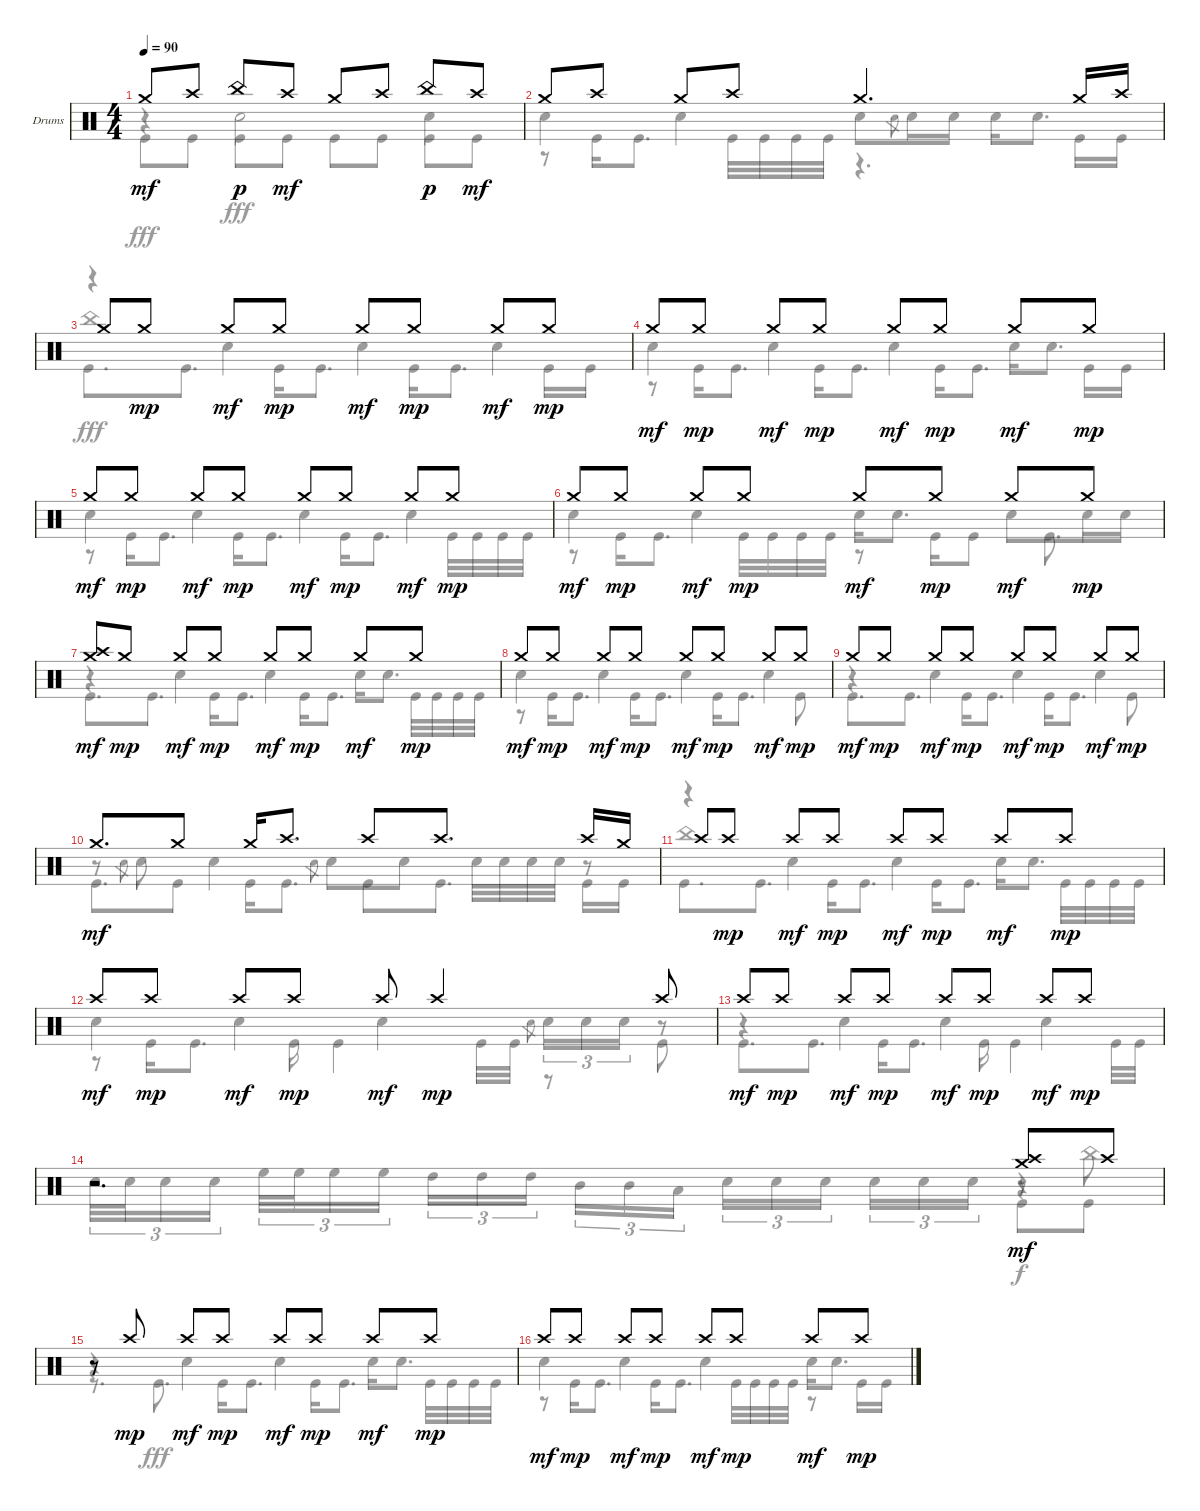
\defaultSystemsLayout 4
\bracketExtendMode groupsimilarinstruments
\firstSystemTrackNameOrientation horizontal
\otherSystemsTrackNameOrientation horizontal
\track ("Drumkit" "Drums") {instrument percussion}
\staff {score}
\articulation defaults
\voice
\ts (4 4)
\tempo 90
\clef neutral
\ks c "Crash medium (hit)".8{dy mf} "Crash high (hit)".8 "China (hit)".8{dy p} "Crash high (hit)".8{dy mf} "Crash medium (hit)".8 "Crash high (hit)".8 "China (hit)".8{dy p} "Crash high (hit)".8{dy mf}
|
"Crash medium (hit)".8 "Crash high (hit)".8 "Crash medium (hit)".8 "Crash high (hit)".8 "Crash medium (hit)".4{d} "Crash medium (hit)".16 "Crash high (hit)".16 |
"Crash medium (hit)".8 "Crash medium (hit)".8{dy mp} "Crash medium (hit)".8{dy mf} "Crash medium (hit)".8{dy mp} "Crash medium (hit)".8{dy mf} "Crash medium (hit)".8{dy mp} "Crash medium (hit)".8{dy mf} "Crash medium (hit)".8{dy mp} |
"Crash medium (hit)".8{dy mf} "Crash medium (hit)".8{dy mp} "Crash medium (hit)".8{dy mf} "Crash medium (hit)".8{dy mp} "Crash medium (hit)".8{dy mf} "Crash medium (hit)".8{dy mp} "Crash medium (hit)".8{dy mf} "Crash medium (hit)".8{dy mp} |
"Crash medium (hit)".8{dy mf} "Crash medium (hit)".8{dy mp} "Crash medium (hit)".8{dy mf} "Crash medium (hit)".8{dy mp} "Crash medium (hit)".8{dy mf} "Crash medium (hit)".8{dy mp} "Crash medium (hit)".8{dy mf} "Crash medium (hit)".8{dy mp} |
"Crash medium (hit)".8{dy mf} "Crash medium (hit)".8{dy mp} "Crash medium (hit)".8{dy mf} "Crash medium (hit)".8{dy mp} "Crash medium (hit)".8{dy mf} "Crash medium (hit)".8{dy mp} "Crash medium (hit)".8{dy mf} "Crash medium (hit)".8{dy mp} |
("Crash medium (hit)" "Crash high (hit)").8{dy mf} "Crash medium (hit)".8{dy mp} "Crash medium (hit)".8{dy mf} "Crash medium (hit)".8{dy mp} "Crash medium (hit)".8{dy mf} "Crash medium (hit)".8{dy mp} "Crash medium (hit)".8{dy mf} "Crash medium (hit)".8{dy mp} |
"Crash medium (hit)".8{dy mf} "Crash medium (hit)".8{dy mp} "Crash medium (hit)".8{dy mf} "Crash medium (hit)".8{dy mp} "Crash medium (hit)".8{dy mf} "Crash medium (hit)".8{dy mp} "Crash medium (hit)".8{dy mf} "Crash medium (hit)".8{dy mp} |
"Crash medium (hit)".8{dy mf} "Crash medium (hit)".8{dy mp} "Crash medium (hit)".8{dy mf} "Crash medium (hit)".8{dy mp} "Crash medium (hit)".8{dy mf} "Crash medium (hit)".8{dy mp} "Crash medium (hit)".8{dy mf} "Crash medium (hit)".8{dy mp} |
"Crash medium (hit)".8{d dy mf} "Crash medium (hit)".8 "Crash medium (hit)".16 "Crash high (hit)".8{d} "Crash high (hit)".8 "Crash high (hit)".8{d} "Crash high (hit)".16 "Crash medium (hit)".16 |
"Crash high (hit)".8 "Crash high (hit)".8{dy mp} "Crash high (hit)".8{dy mf} "Crash high (hit)".8{dy mp} "Crash high (hit)".8{dy mf} "Crash high (hit)".8{dy mp} "Crash high (hit)".8{dy mf} "Crash high (hit)".8{dy mp} |
"Crash high (hit)".8{dy mf} "Crash high (hit)".8{dy mp} "Crash high (hit)".8{dy mf} "Crash high (hit)".8{dy mp} "Crash high (hit)".8{dy mf} "Crash high (hit)".4{dy mp} "Crash high (hit)".8 |
"Crash high (hit)".8{dy mf} "Crash high (hit)".8{dy mp} "Crash high (hit)".8{dy mf} "Crash high (hit)".8{dy mp} "Crash high (hit)".8{dy mf} "Crash high (hit)".8{dy mp} "Crash high (hit)".8{dy mf} "Crash high (hit)".8{dy mp} |
r.2{d} ("Crash medium (hit)" "Crash high (hit)").8{dy mf} "Crash high (hit)".8 |
r.8 "Crash high (hit)".8{dy mp} "Crash high (hit)".8{dy mf} "Crash high (hit)".8{dy mp} "Crash high (hit)".8{dy mf} "Crash high (hit)".8{dy mp} "Crash high (hit)".8{dy mf} "Crash high (hit)".8{dy mp} |
"Crash high (hit)".8{dy mf} "Crash high (hit)".8{dy mp} "Crash high (hit)".8{dy mf} "Crash high (hit)".8{dy mp} "Crash high (hit)".8{dy mf} "Crash high (hit)".8{dy mp} "Crash high (hit)".8{dy mf} "Crash high (hit)".8{dy mp}
\voice
\clef neutral
\ottava regular
\simile none
\ks c
r.4{dy fff} "Snare (hit) 2".2 "Snare (hit) 2".4 |
"Snare (hit) 2".4 "Snare (hit) 2".4 "Snare (hit) 2".8 "Snare (hit) 2".8{gr} "Snare (hit) 2".16 "Snare (hit) 2".16 "Snare (hit) 2".16 "Snare (hit) 2".8{d} |
r.4 "Snare (hit) 2".4 "Snare (hit) 2".4 "Snare (hit) 2".4 |
"Snare (hit) 2".4 "Snare (hit) 2".4 "Snare (hit) 2".4 "Snare (hit) 2".16 "Snare (hit) 2".8{d} |
"Snare (hit) 2".4 "Snare (hit) 2".4 "Snare (hit) 2".4 "Snare (hit) 2".4 |
"Snare (hit) 2".4 "Snare (hit) 2".4 "Snare (hit) 2".16 "Snare (hit) 2".8{d} "Snare (hit) 2".8 "Snare (hit) 2".16 "Snare (hit) 2".16 |
r.4 "Snare (hit) 2".4 "Snare (hit) 2".4 "Snare (hit) 2".16 "Snare (hit) 2".8{d} |
"Snare (hit) 2".4 "Snare (hit) 2".4 "Snare (hit) 2".4 "Snare (hit) 2".4 |
r.4 "Snare (hit) 2".4 "Snare (hit) 2".4 "Snare (hit) 2".4 |
r.8 "Snare (hit) 2".8{gr} "Snare (hit) 2".8 "Snare (hit) 2".4 "Snare (hit) 2".8{gr} "Snare (hit) 2".8 "Snare (hit) 2".8 "Snare (hit) 2".32 "Snare (hit) 2".32 "Snare (hit) 2".32 "Snare (hit) 2".32 r.8 |
r.4 "Snare (hit) 2".4 "Snare (hit) 2".4 "Snare (hit) 2".16 "Snare (hit) 2".8{d} |
"Snare (hit) 2".4 "Snare (hit) 2".4 "Snare (hit) 2".4 "Snare (hit) 2".8{gr} "Snare (hit) 2".16{tu (3 2)} "Snare (hit) 2".16{tu (3 2)} "Snare (hit) 2".16{tu (3 2)} r.8 |
r.4 "Snare (hit) 2".4 "Snare (hit) 2".4 "Snare (hit) 2".4 |
"Snare (hit) 2".32{tu (3 2)} "Snare (hit) 2".32{tu (3 2)} "Snare (hit) 2".16{tu (3 2)} "Snare (hit) 2".16{tu (3 2)} "High Floor Tom (hit)".32{tu (3 2)} "High Floor Tom (hit)".32{tu (3 2)} "High Floor Tom (hit)".16{tu (3 2)} "High Floor Tom (hit)".16{tu (3 2)} "High Tom (hit)".16{tu (3 2)} "High Tom (hit)".16{tu (3 2)} "High Tom (hit)".16{tu (3 2)} "Mid Tom (hit)".16{tu (3 2)} "Mid Tom (hit)".16{tu (3 2)} "Low Tom (hit)".16{tu (3 2)} "Snare (hit) 2".16{tu (3 2)} "Snare (hit) 2".16{tu (3 2)} "Snare (hit) 2".16{tu (3 2)} "Snare (hit) 2".16{tu (3 2)} "Snare (hit) 2".16{tu (3 2)} "Snare (hit) 2".16{tu (3 2)} r.4 |
r.4 "Snare (hit) 2".4 "Snare (hit) 2".4 "Snare (hit) 2".16 "Snare (hit) 2".8{d} |
"Snare (hit) 2".4 "Snare (hit) 2".4 "Snare (hit) 2".4 "Snare (hit) 2".16 "Snare (hit) 2".8{d}
\voice
\clef neutral
\ottava regular
\simile none
\ks c "Kick (hit)".8{dy fff} "Kick (hit)".8 "Kick (hit)".8 "Kick (hit)".8 "Kick (hit)".8 "Kick (hit)".8 "Kick (hit)".8 "Kick (hit)".8
|
r.8 "Kick (hit)".16 "Kick (hit)".8{d} "Kick (hit)".32 "Kick (hit)".32 "Kick (hit)".32 "Kick (hit)".32 r.4{d} "Kick (hit)".16 "Kick (hit)".16 |
"Kick (hit)".8{d} "Kick (hit)".8{d} "Kick (hit)".16 "Kick (hit)".8{d} "Kick (hit)".16 "Kick (hit)".8{d} "Kick (hit)".16 "Kick (hit)".16 |
r.8 "Kick (hit)".16 "Kick (hit)".8{d} "Kick (hit)".16 "Kick (hit)".8{d} "Kick (hit)".16 "Kick (hit)".8{d} "Kick (hit)".16 "Kick (hit)".16 |
r.8 "Kick (hit)".16 "Kick (hit)".8{d} "Kick (hit)".16 "Kick (hit)".8{d} "Kick (hit)".16 "Kick (hit)".8{d} "Kick (hit)".32 "Kick (hit)".32 "Kick (hit)".32 "Kick (hit)".32 |
r.8 "Kick (hit)".16 "Kick (hit)".8{d} "Kick (hit)".32 "Kick (hit)".32 "Kick (hit)".32 "Kick (hit)".32 r.8 "Kick (hit)".16 "Kick (hit)".8 "Kick (hit)".8{d} |
"Kick (hit)".8{d} "Kick (hit)".8{d} "Kick (hit)".16 "Kick (hit)".8{d} "Kick (hit)".16 "Kick (hit)".8{d} "Kick (hit)".32 "Kick (hit)".32 "Kick (hit)".32 "Kick (hit)".32 |
r.8 "Kick (hit)".16 "Kick (hit)".8{d} "Kick (hit)".16 "Kick (hit)".8{d} "Kick (hit)".16 "Kick (hit)".8{d} "Kick (hit)".8 |
"Kick (hit)".8{d} "Kick (hit)".8{d} "Kick (hit)".16 "Kick (hit)".8{d} "Kick (hit)".16 "Kick (hit)".8{d} "Kick (hit)".8 |
"Kick (hit)".8{d} "Kick (hit)".8 "Kick (hit)".16 "Kick (hit)".8{d} "Kick (hit)".8 "Kick (hit)".8{d} "Kick (hit)".16 "Kick (hit)".16 |
"Kick (hit)".8{d} "Kick (hit)".8{d} "Kick (hit)".16 "Kick (hit)".8{d} "Kick (hit)".16 "Kick (hit)".8{d} "Kick (hit)".32 "Kick (hit)".32 "Kick (hit)".32 "Kick (hit)".32 |
r.8 "Kick (hit)".16 "Kick (hit)".8{d} "Kick (hit)".16 "Kick (hit)".4 "Kick (hit)".32 "Kick (hit)".32 r.8 "Kick (hit)".8 |
"Kick (hit)".8{d} "Kick (hit)".8{d} "Kick (hit)".16 "Kick (hit)".8{d} "Kick (hit)".16 "Kick (hit)".4 "Kick (hit)".32 "Kick (hit)".32 |
r.2{d} "Kick (hit)".8{dy f} "Kick (hit)".8 |
r.8{d} "Kick (hit)".8{d dy fff} "Kick (hit)".16 "Kick (hit)".8{d} "Kick (hit)".16 "Kick (hit)".8{d} "Kick (hit)".32 "Kick (hit)".32 "Kick (hit)".32 "Kick (hit)".32 |
r.8 "Kick (hit)".16 "Kick (hit)".8{d} "Kick (hit)".16 "Kick (hit)".8{d} "Kick (hit)".32 "Kick (hit)".32 "Kick (hit)".32 "Kick (hit)".32 r.8 "Kick (hit)".16 "Kick (hit)".16
\voice
\clef neutral
\ottava regular
\simile none
\ks c
|
|
"China (hit)".1 |
|
|
|
|
|
|
|
"China (hit)".1 |
|
|
r.2{d} r.8 "China (hit)".8 |
|
